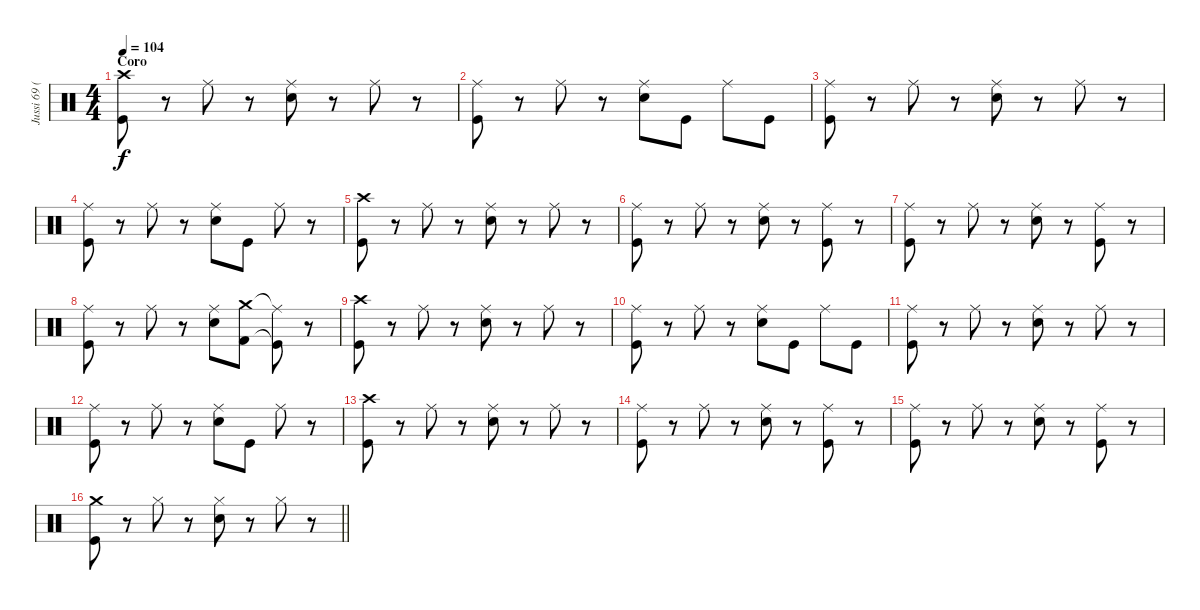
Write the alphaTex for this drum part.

\track ("Jussi 69 (Batería)" "Jussi 69 (") {instrument percussion}
\staff {score}
\articulation defaults
\ts (4 4)
\section ("" "Coro")
\tempo 104
\clef neutral
\ks c
("Crash high (hit)" "Kick (hit)").8{dy f} r.8 "Ride (middle)".8 r.8 ("Ride (middle)" "Electric Snare (hit)").8 r.8 "Ride (middle)".8 r.8 |
("Ride (middle)" "Kick (hit)").8 r.8 "Ride (middle)".8 r.8 ("Ride (middle)" "Electric Snare (hit)").8 "Kick (hit)".8 "Ride (middle)".8 "Kick (hit)".8 |
("Ride (middle)" "Kick (hit)").8 r.8 "Ride (middle)".8 r.8 ("Ride (middle)" "Electric Snare (hit)").8 r.8 "Ride (middle)".8 r.8 |
("Ride (middle)" "Kick (hit)").8 r.8 "Ride (middle)".8 r.8 ("Ride (middle)" "Electric Snare (hit)").8 "Kick (hit)".8 "Ride (middle)".8 r.8 |
("Crash high (hit)" "Kick (hit)").8 r.8 "Ride (middle)".8 r.8 ("Ride (middle)" "Electric Snare (hit)").8 r.8 "Ride (middle)".8 r.8 |
("Ride (middle)" "Kick (hit)").8 r.8 "Ride (middle)".8 r.8 ("Ride (middle)" "Electric Snare (hit)").8 r.8 ("Ride (middle)" "Kick (hit)").8 r.8 |
("Ride (middle)" "Kick (hit)").8 r.8 "Ride (middle)".8 r.8 ("Ride (middle)" "Electric Snare (hit)").8 r.8 ("Ride (middle)" "Kick (hit)").8 r.8 |
("Ride (middle)" "Kick (hit)").8 r.8 "Ride (middle)".8 r.8 ("Ride (middle)" "Electric Snare (hit)").8 ("Crash medium (hit)" "Kick (hit) 2").8 ("Ride (middle)"{t} "Kick (hit)"{t}).8 r.8 |
("Crash high (hit)" "Kick (hit)").8 r.8 "Ride (middle)".8 r.8 ("Ride (middle)" "Electric Snare (hit)").8 r.8 "Ride (middle)".8 r.8 |
("Ride (middle)" "Kick (hit)").8 r.8 "Ride (middle)".8 r.8 ("Ride (middle)" "Electric Snare (hit)").8 "Kick (hit)".8 "Ride (middle)".8 "Kick (hit)".8 |
("Ride (middle)" "Kick (hit)").8 r.8 "Ride (middle)".8 r.8 ("Ride (middle)" "Electric Snare (hit)").8 r.8 "Ride (middle)".8 r.8 |
("Ride (middle)" "Kick (hit)").8 r.8 "Ride (middle)".8 r.8 ("Ride (middle)" "Electric Snare (hit)").8 "Kick (hit)".8 "Ride (middle)".8 r.8 |
("Crash high (hit)" "Kick (hit)").8 r.8 "Ride (middle)".8 r.8 ("Ride (middle)" "Electric Snare (hit)").8 r.8 "Ride (middle)".8 r.8 |
("Ride (middle)" "Kick (hit)").8 r.8 "Ride (middle)".8 r.8 ("Ride (middle)" "Electric Snare (hit)").8 r.8 ("Ride (middle)" "Kick (hit)").8 r.8 |
("Ride (middle)" "Kick (hit)").8 r.8 "Ride (middle)".8 r.8 ("Ride (middle)" "Electric Snare (hit)").8 r.8 ("Ride (middle)" "Kick (hit)").8 r.8 |
\barLineRight lightlight
("Crash medium (hit)" "Kick (hit)").8 r.8 "Hi-Hat (closed)".8 r.8 ("Hi-Hat (closed)" "Electric Snare (hit)").8 r.8 "Hi-Hat (closed)".8 r.8
